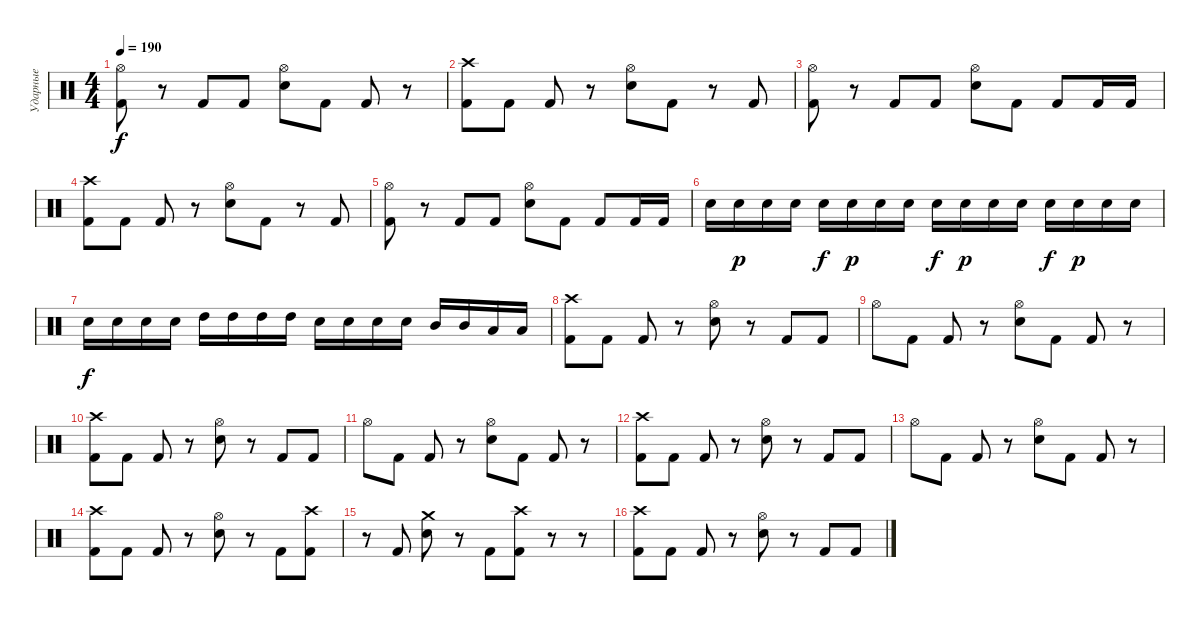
\track ("Ударные" "Ударные") {instrument percussion}
\staff {score}
\articulation defaults
\ts (4 4)
\tempo 190
\clef neutral
\ks c
("Hi-Hat (open)" "Kick (hit) 2").8{dy f} r.8 "Kick (hit) 2".8 "Kick (hit) 2".8 ("Hi-Hat (open)" "Electric Snare (hit)").8 "Kick (hit) 2".8 "Kick (hit) 2".8 r.8 |
("Crash high (hit)" "Kick (hit) 2").8 "Kick (hit) 2".8 "Kick (hit) 2".8 r.8 ("Hi-Hat (open)" "Electric Snare (hit)").8 "Kick (hit) 2".8 r.8 "Kick (hit) 2".8 |
("Hi-Hat (open)" "Kick (hit) 2").8 r.8 "Kick (hit) 2".8 "Kick (hit) 2".8 ("Hi-Hat (open)" "Electric Snare (hit)").8 "Kick (hit) 2".8 "Kick (hit) 2".8 "Kick (hit) 2".16 "Kick (hit) 2".16 |
("Crash high (hit)" "Kick (hit) 2").8 "Kick (hit) 2".8 "Kick (hit) 2".8 r.8 ("Hi-Hat (open)" "Electric Snare (hit)").8 "Kick (hit) 2".8 r.8 "Kick (hit) 2".8 |
("Hi-Hat (open)" "Kick (hit) 2").8 r.8 "Kick (hit) 2".8 "Kick (hit) 2".8 ("Hi-Hat (open)" "Electric Snare (hit)").8 "Kick (hit) 2".8 "Kick (hit) 2".8 "Kick (hit) 2".16 "Kick (hit) 2".16 |
"Electric Snare (hit)".16 "Electric Snare (hit)".16{dy p} "Electric Snare (hit)".16 "Electric Snare (hit)".16 "Electric Snare (hit)".16{dy f} "Electric Snare (hit)".16{dy p} "Electric Snare (hit)".16 "Electric Snare (hit)".16 "Electric Snare (hit)".16{dy f} "Electric Snare (hit)".16{dy p} "Electric Snare (hit)".16 "Electric Snare (hit)".16 "Electric Snare (hit)".16{dy f} "Electric Snare (hit)".16{dy p} "Electric Snare (hit)".16 "Electric Snare (hit)".16 |
"Electric Snare (hit)".16{dy f} "Electric Snare (hit)".16 "Electric Snare (hit)".16 "Electric Snare (hit)".16 "High Tom (hit)".16 "High Tom (hit)".16 "High Tom (hit)".16 "High Tom (hit)".16 "Electric Snare (hit)".16 "Electric Snare (hit)".16 "Electric Snare (hit)".16 "Electric Snare (hit)".16 "Mid Tom (hit)".16 "Mid Tom (hit)".16 "Low Tom (hit)".16 "Low Tom (hit)".16 |
("Crash high (hit)" "Kick (hit) 2").8 "Kick (hit) 2".8 "Kick (hit) 2".8 r.8 ("Hi-Hat (open)" "Electric Snare (hit)").8 r.8 "Kick (hit) 2".8 "Kick (hit) 2".8 |
"Hi-Hat (open)".8 "Kick (hit) 2".8 "Kick (hit) 2".8 r.8 ("Hi-Hat (open)" "Electric Snare (hit)").8 "Kick (hit) 2".8 "Kick (hit) 2".8 r.8 |
("Crash high (hit)" "Kick (hit) 2").8 "Kick (hit) 2".8 "Kick (hit) 2".8 r.8 ("Hi-Hat (open)" "Electric Snare (hit)").8 r.8 "Kick (hit) 2".8 "Kick (hit) 2".8 |
"Hi-Hat (open)".8 "Kick (hit) 2".8 "Kick (hit) 2".8 r.8 ("Hi-Hat (open)" "Electric Snare (hit)").8 "Kick (hit) 2".8 "Kick (hit) 2".8 r.8 |
("Crash high (hit)" "Kick (hit) 2").8 "Kick (hit) 2".8 "Kick (hit) 2".8 r.8 ("Hi-Hat (open)" "Electric Snare (hit)").8 r.8 "Kick (hit) 2".8 "Kick (hit) 2".8 |
"Hi-Hat (open)".8 "Kick (hit) 2".8 "Kick (hit) 2".8 r.8 ("Hi-Hat (open)" "Electric Snare (hit)").8 "Kick (hit) 2".8 "Kick (hit) 2".8 r.8 |
("Crash high (hit)" "Kick (hit) 2").8 "Kick (hit) 2".8 "Kick (hit) 2".8 r.8 ("Hi-Hat (open)" "Electric Snare (hit)").8 r.8 "Kick (hit) 2".8 ("Crash high (hit)" "Kick (hit) 2").8 |
r.8 "Kick (hit) 2".8 ("Crash medium (hit)" "Electric Snare (hit)").8 r.8 "Kick (hit) 2".8 ("Crash high (hit)" "Kick (hit) 2").8 r.8 r.8 |
("Crash high (hit)" "Kick (hit) 2").8 "Kick (hit) 2".8 "Kick (hit) 2".8 r.8 ("Hi-Hat (open)" "Electric Snare (hit)").8 r.8 "Kick (hit) 2".8 "Kick (hit) 2".8
